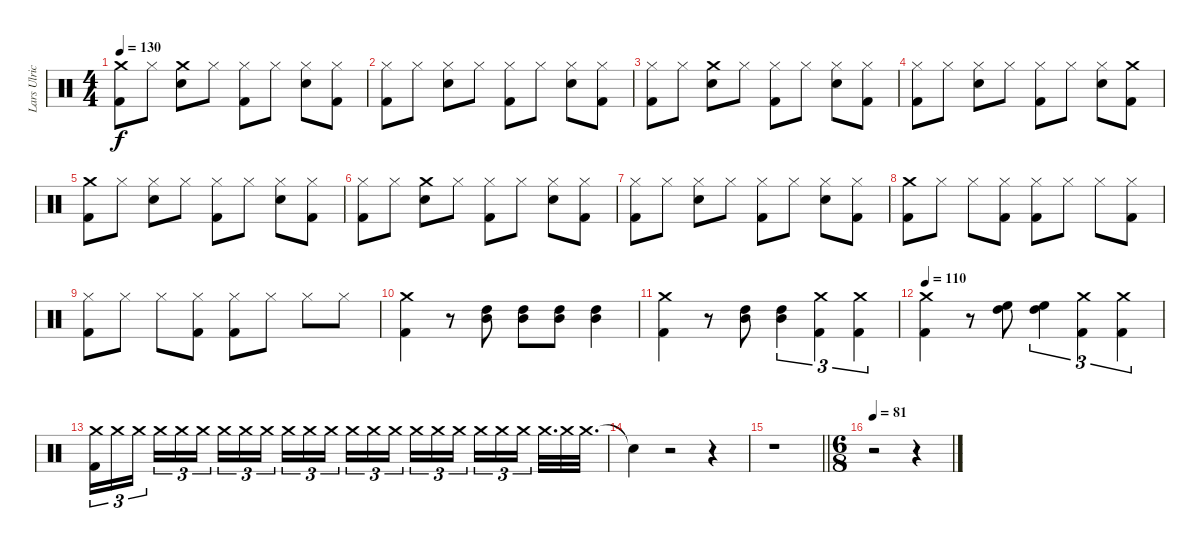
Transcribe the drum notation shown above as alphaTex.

\track ("Lars Ulrich (Drums)" "Lars Ulric") {instrument percussion}
\staff {score}
\articulation defaults
\ts (4 4)
\tempo 130
\clef neutral
\ks c
("Crash medium (hit)" "Kick (hit) 2").8{dy f} "Hi-Hat (closed)".8 ("Crash medium (hit)" "Snare (hit) 2").8 "Hi-Hat (closed)".8 ("Hi-Hat (closed)" "Kick (hit) 2").8 "Hi-Hat (closed)".8 ("Snare (hit) 2" "Hi-Hat (closed)").8 ("Kick (hit) 2" "Hi-Hat (closed)").8 |
("Hi-Hat (closed)" "Kick (hit) 2").8 "Hi-Hat (closed)".8 ("Snare (hit) 2" "Hi-Hat (closed)").8 "Hi-Hat (closed)".8 ("Hi-Hat (closed)" "Kick (hit) 2").8 "Hi-Hat (closed)".8 ("Snare (hit) 2" "Hi-Hat (closed)").8 ("Hi-Hat (closed)" "Kick (hit) 2").8 |
("Hi-Hat (closed)" "Kick (hit) 2").8 "Hi-Hat (closed)".8 ("Crash medium (hit)" "Snare (hit) 2").8 "Hi-Hat (closed)".8 ("Hi-Hat (closed)" "Kick (hit) 2").8 "Hi-Hat (closed)".8 ("Snare (hit) 2" "Hi-Hat (closed)").8 ("Kick (hit) 2" "Hi-Hat (closed)").8 |
("Kick (hit) 2" "Hi-Hat (closed)").8 "Hi-Hat (closed)".8 ("Snare (hit) 2" "Hi-Hat (closed)").8 "Hi-Hat (closed)".8 ("Kick (hit) 2" "Hi-Hat (closed)").8 "Hi-Hat (closed)".8 ("Snare (hit) 2" "Hi-Hat (closed)").8 ("Crash medium (hit)" "Kick (hit) 2").8 |
("Crash medium (hit)" "Kick (hit) 2").8 "Hi-Hat (closed)".8 ("Snare (hit) 2" "Hi-Hat (closed)").8 "Hi-Hat (closed)".8 ("Hi-Hat (closed)" "Kick (hit) 2").8 "Hi-Hat (closed)".8 ("Snare (hit) 2" "Hi-Hat (closed)").8 ("Kick (hit) 2" "Hi-Hat (closed)").8 |
("Hi-Hat (closed)" "Kick (hit) 2").8 "Hi-Hat (closed)".8 ("Crash medium (hit)" "Snare (hit) 2").8 "Hi-Hat (closed)".8 ("Hi-Hat (closed)" "Kick (hit) 2").8 "Hi-Hat (closed)".8 ("Snare (hit) 2" "Hi-Hat (closed)").8 ("Hi-Hat (closed)" "Kick (hit) 2").8 |
("Hi-Hat (closed)" "Kick (hit) 2").8 "Hi-Hat (closed)".8 ("Hi-Hat (closed)" "Snare (hit) 2").8 "Hi-Hat (closed)".8 ("Hi-Hat (closed)" "Kick (hit) 2").8 "Hi-Hat (closed)".8 ("Snare (hit) 2" "Hi-Hat (closed)").8 ("Kick (hit) 2" "Hi-Hat (closed)").8 |
("Kick (hit) 2" "Crash medium (hit)").8 "Hi-Hat (closed)".8 "Hi-Hat (closed)".8 ("Kick (hit) 2" "Hi-Hat (closed)").8 ("Kick (hit) 2" "Hi-Hat (closed)").8 "Hi-Hat (closed)".8 "Hi-Hat (closed)".8 ("Kick (hit) 2" "Hi-Hat (closed)").8 |
("Hi-Hat (closed)" "Kick (hit) 2").8 "Hi-Hat (closed)".8 "Hi-Hat (closed)".8 ("Kick (hit) 2" "Hi-Hat (closed)").8 ("Hi-Hat (closed)" "Kick (hit) 2").8 "Hi-Hat (closed)".8 "Hi-Hat (closed)".8 "Hi-Hat (closed)".8 |
("Kick (hit) 2" "Crash medium (hit)").4 r.8 ("High Tom (hit)" "Mid Tom (hit)").8 ("High Tom (hit)" "Mid Tom (hit)").8 ("High Tom (hit)" "Mid Tom (hit)").8 ("High Tom (hit)" "Mid Tom (hit)").4 |
("Kick (hit) 2" "Crash medium (hit)").4 r.8 ("Mid Tom (hit)" "High Tom (hit)").8 ("High Tom (hit)" "Mid Tom (hit)").4{tu (3 2)} ("Kick (hit) 2" "Crash medium (hit)").4{tu (3 2)} ("Kick (hit) 2" "Crash medium (hit)").4{tu (3 2)} |
\tempo 110
("Crash medium (hit)" "Kick (hit) 2").4 r.8 ("High Floor Tom (hit)" "High Tom (hit)").8 ("High Tom (hit)" "High Floor Tom (hit)").4{tu (3 2)} ("Kick (hit) 2" "Crash medium (hit)").4{tu (3 2)} ("Kick (hit) 2" "Crash medium (hit)").4{tu (3 2)} |
("Kick (hit) 2" "Crash medium (hit)").16{tu (3 2)} "Crash medium (hit)".16{tu (3 2)} "Crash medium (hit)".16{tu (3 2) beam splitsecondary} "Crash medium (hit)".16{tu (3 2)} "Crash medium (hit)".16{tu (3 2)} "Crash medium (hit)".16{tu (3 2)} "Crash medium (hit)".16{tu (3 2)} "Crash medium (hit)".16{tu (3 2)} "Crash medium (hit)".16{tu (3 2) beam splitsecondary} "Crash medium (hit)".16{tu (3 2)} "Crash medium (hit)".16{tu (3 2)} "Crash medium (hit)".16{tu (3 2)} "Crash medium (hit)".16{tu (3 2)} "Crash medium (hit)".16{tu (3 2)} "Crash medium (hit)".16{tu (3 2) beam splitsecondary} "Crash medium (hit)".16{tu (3 2)} "Crash medium (hit)".16{tu (3 2)} "Crash medium (hit)".16{tu (3 2)} "Crash medium (hit)".16{tu (3 2)} "Crash medium (hit)".16{tu (3 2)} "Crash medium (hit)".16{tu (3 2) beam splitsecondary} "Crash medium (hit)".32{d} "Crash medium (hit)".32 "Crash medium (hit)".32{d} |
"Snare (hit)"{t}.4 r.2 r.4 |
\barLineRight lightlight
r.1 |
\ts (6 8)
\tempo 81
r.2 r.4
